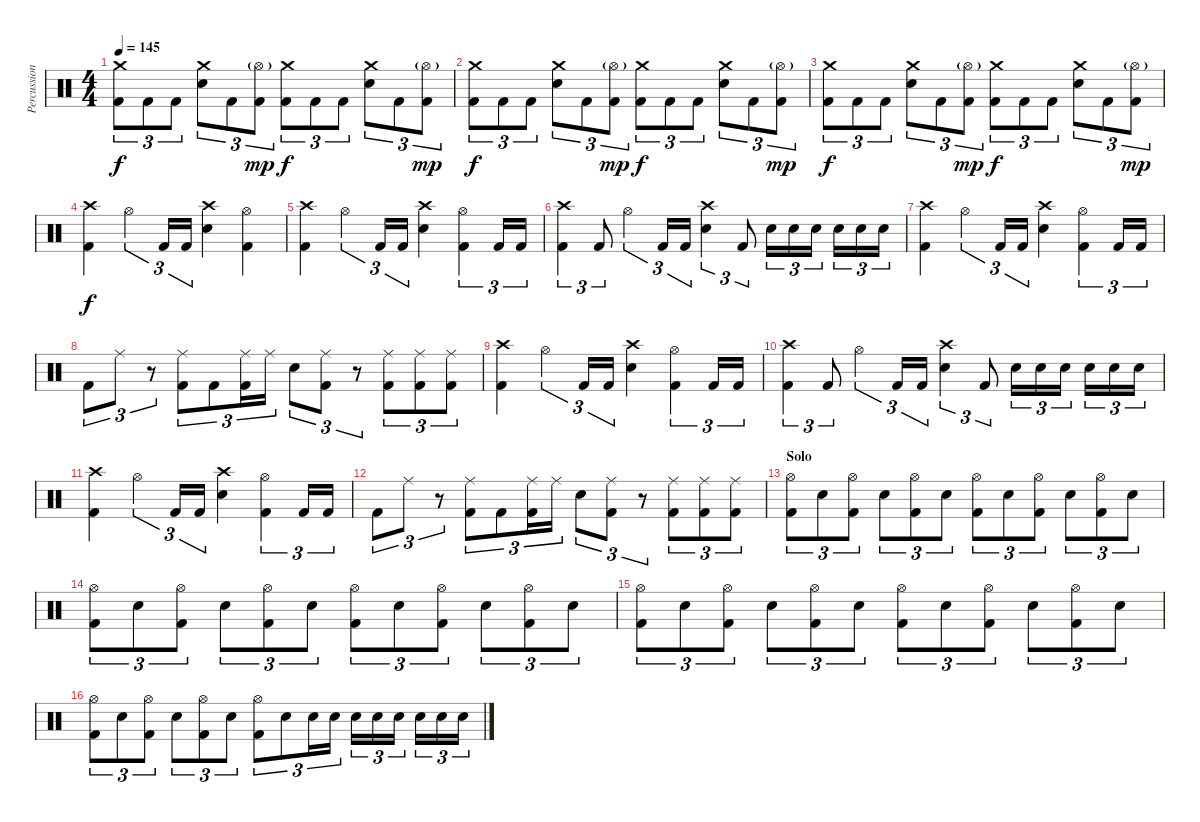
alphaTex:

\track ("Percussion" "Percussion") {instrument percussion}
\staff {score}
\articulation defaults
\ts (4 4)
\tempo 145
\clef neutral
\ks c
("Crash medium (hit)" "Kick (hit) 2").8{tu (3 2) dy f} "Kick (hit) 2".8{tu (3 2)} "Kick (hit) 2".8{tu (3 2)} ("Crash medium (hit)" "Electric Snare (hit)").8{tu (3 2)} "Kick (hit) 2".8{tu (3 2)} ("Hi-Hat (open)"{g} "Kick (hit) 2").8{tu (3 2) dy mp} ("Crash medium (hit)" "Kick (hit) 2").8{tu (3 2) dy f} "Kick (hit) 2".8{tu (3 2)} "Kick (hit) 2".8{tu (3 2)} ("Crash medium (hit)" "Electric Snare (hit)").8{tu (3 2)} "Kick (hit) 2".8{tu (3 2)} ("Hi-Hat (open)"{g} "Kick (hit) 2").8{tu (3 2) dy mp} |
("Crash medium (hit)" "Kick (hit) 2").8{tu (3 2) dy f} "Kick (hit) 2".8{tu (3 2)} "Kick (hit) 2".8{tu (3 2)} ("Crash medium (hit)" "Electric Snare (hit)").8{tu (3 2)} "Kick (hit) 2".8{tu (3 2)} ("Hi-Hat (open)"{g} "Kick (hit) 2").8{tu (3 2) dy mp} ("Crash medium (hit)" "Kick (hit) 2").8{tu (3 2) dy f} "Kick (hit) 2".8{tu (3 2)} "Kick (hit) 2".8{tu (3 2)} ("Crash medium (hit)" "Electric Snare (hit)").8{tu (3 2)} "Kick (hit) 2".8{tu (3 2)} ("Hi-Hat (open)"{g} "Kick (hit) 2").8{tu (3 2) dy mp} |
("Crash medium (hit)" "Kick (hit) 2").8{tu (3 2) dy f} "Kick (hit) 2".8{tu (3 2)} "Kick (hit) 2".8{tu (3 2)} ("Crash medium (hit)" "Electric Snare (hit)").8{tu (3 2)} "Kick (hit) 2".8{tu (3 2)} ("Hi-Hat (open)"{g} "Kick (hit) 2").8{tu (3 2) dy mp} ("Crash medium (hit)" "Kick (hit) 2").8{tu (3 2) dy f} "Kick (hit) 2".8{tu (3 2)} "Kick (hit) 2".8{tu (3 2)} ("Crash medium (hit)" "Electric Snare (hit)").8{tu (3 2)} "Kick (hit) 2".8{tu (3 2)} ("Hi-Hat (open)"{g} "Kick (hit) 2").8{tu (3 2) dy mp} |
("Crash high (hit)" "Kick (hit) 2").4{dy f} "Hi-Hat (open)".4{tu (3 2)} "Kick (hit) 2".16{tu (3 2)} "Kick (hit) 2".16{tu (3 2)} ("Crash high (hit)" "Electric Snare (hit)").4 ("Hi-Hat (open)" "Kick (hit) 2").4 |
("Crash high (hit)" "Kick (hit) 2").4 "Hi-Hat (open)".4{tu (3 2)} "Kick (hit) 2".16{tu (3 2)} "Kick (hit) 2".16{tu (3 2)} ("Crash high (hit)" "Electric Snare (hit)").4 ("Hi-Hat (open)" "Kick (hit) 2").4{tu (3 2)} "Kick (hit) 2".16{tu (3 2)} "Kick (hit) 2".16{tu (3 2)} |
("Crash high (hit)" "Kick (hit) 2").4{tu (3 2)} "Kick (hit) 2".8{tu (3 2)} "Hi-Hat (open)".4{tu (3 2)} "Kick (hit) 2".16{tu (3 2)} "Kick (hit) 2".16{tu (3 2)} ("Crash high (hit)" "Electric Snare (hit)").4{tu (3 2)} "Kick (hit) 2".8{tu (3 2)} "Electric Snare (hit)".16{tu (3 2)} "Electric Snare (hit)".16{tu (3 2)} "Electric Snare (hit)".16{tu (3 2)} "Electric Snare (hit)".16{tu (3 2)} "Electric Snare (hit)".16{tu (3 2)} "Electric Snare (hit)".16{tu (3 2)} |
("Crash high (hit)" "Kick (hit) 2").4 "Hi-Hat (open)".4{tu (3 2)} "Kick (hit) 2".16{tu (3 2)} "Kick (hit) 2".16{tu (3 2)} ("Crash high (hit)" "Electric Snare (hit)").4 ("Hi-Hat (open)" "Kick (hit) 2").4{tu (3 2)} "Kick (hit) 2".16{tu (3 2)} "Kick (hit) 2".16{tu (3 2)} |
"Kick (hit) 2".8{tu (3 2)} "Ride (middle)".8{tu (3 2)} r.8{tu (3 2)} ("Ride (middle)" "Kick (hit) 2").8{tu (3 2)} "Kick (hit) 2".8{tu (3 2)} ("Ride (middle)" "Kick (hit) 2").16{tu (3 2)} "Ride (middle)".16{tu (3 2)} "Electric Snare (hit)".8{tu (3 2)} ("Ride (middle)" "Kick (hit) 2").8{tu (3 2)} r.8{tu (3 2)} ("Ride (middle)" "Kick (hit) 2").8{tu (3 2)} ("Ride (middle)" "Kick (hit) 2").8{tu (3 2)} ("Ride (middle)" "Kick (hit) 2").8{tu (3 2)} |
("Crash high (hit)" "Kick (hit) 2").4 "Hi-Hat (open)".4{tu (3 2)} "Kick (hit) 2".16{tu (3 2)} "Kick (hit) 2".16{tu (3 2)} ("Crash high (hit)" "Electric Snare (hit)").4 ("Hi-Hat (open)" "Kick (hit) 2").4{tu (3 2)} "Kick (hit) 2".16{tu (3 2)} "Kick (hit) 2".16{tu (3 2)} |
("Crash high (hit)" "Kick (hit) 2").4{tu (3 2)} "Kick (hit) 2".8{tu (3 2)} "Hi-Hat (open)".4{tu (3 2)} "Kick (hit) 2".16{tu (3 2)} "Kick (hit) 2".16{tu (3 2)} ("Crash high (hit)" "Electric Snare (hit)").4{tu (3 2)} "Kick (hit) 2".8{tu (3 2)} "Electric Snare (hit)".16{tu (3 2)} "Electric Snare (hit)".16{tu (3 2)} "Electric Snare (hit)".16{tu (3 2)} "Electric Snare (hit)".16{tu (3 2)} "Electric Snare (hit)".16{tu (3 2)} "Electric Snare (hit)".16{tu (3 2)} |
("Crash high (hit)" "Kick (hit) 2").4 "Hi-Hat (open)".4{tu (3 2)} "Kick (hit) 2".16{tu (3 2)} "Kick (hit) 2".16{tu (3 2)} ("Crash high (hit)" "Electric Snare (hit)").4 ("Hi-Hat (open)" "Kick (hit) 2").4{tu (3 2)} "Kick (hit) 2".16{tu (3 2)} "Kick (hit) 2".16{tu (3 2)} |
"Kick (hit) 2".8{tu (3 2)} "Ride (middle)".8{tu (3 2)} r.8{tu (3 2)} ("Ride (middle)" "Kick (hit) 2").8{tu (3 2)} "Kick (hit) 2".8{tu (3 2)} ("Ride (middle)" "Kick (hit) 2").16{tu (3 2)} "Ride (middle)".16{tu (3 2)} "Electric Snare (hit)".8{tu (3 2)} ("Ride (middle)" "Kick (hit) 2").8{tu (3 2)} r.8{tu (3 2)} ("Ride (middle)" "Kick (hit) 2").8{tu (3 2)} ("Ride (middle)" "Kick (hit) 2").8{tu (3 2)} ("Ride (middle)" "Kick (hit) 2").8{tu (3 2)} |
\section ("" "Solo")
("Hi-Hat (open)" "Kick (hit) 2").8{tu (3 2)} "Electric Snare (hit)".8{tu (3 2)} ("Hi-Hat (open)" "Kick (hit) 2").8{tu (3 2)} "Electric Snare (hit)".8{tu (3 2)} ("Hi-Hat (open)" "Kick (hit) 2").8{tu (3 2)} "Electric Snare (hit)".8{tu (3 2)} ("Hi-Hat (open)" "Kick (hit) 2").8{tu (3 2)} "Electric Snare (hit)".8{tu (3 2)} ("Hi-Hat (open)" "Kick (hit) 2").8{tu (3 2)} "Electric Snare (hit)".8{tu (3 2)} ("Hi-Hat (open)" "Kick (hit) 2").8{tu (3 2)} "Electric Snare (hit)".8{tu (3 2)} |
("Hi-Hat (open)" "Kick (hit) 2").8{tu (3 2)} "Electric Snare (hit)".8{tu (3 2)} ("Hi-Hat (open)" "Kick (hit) 2").8{tu (3 2)} "Electric Snare (hit)".8{tu (3 2)} ("Hi-Hat (open)" "Kick (hit) 2").8{tu (3 2)} "Electric Snare (hit)".8{tu (3 2)} ("Hi-Hat (open)" "Kick (hit) 2").8{tu (3 2)} "Electric Snare (hit)".8{tu (3 2)} ("Hi-Hat (open)" "Kick (hit) 2").8{tu (3 2)} "Electric Snare (hit)".8{tu (3 2)} ("Hi-Hat (open)" "Kick (hit) 2").8{tu (3 2)} "Electric Snare (hit)".8{tu (3 2)} |
("Hi-Hat (open)" "Kick (hit) 2").8{tu (3 2)} "Electric Snare (hit)".8{tu (3 2)} ("Hi-Hat (open)" "Kick (hit) 2").8{tu (3 2)} "Electric Snare (hit)".8{tu (3 2)} ("Hi-Hat (open)" "Kick (hit) 2").8{tu (3 2)} "Electric Snare (hit)".8{tu (3 2)} ("Hi-Hat (open)" "Kick (hit) 2").8{tu (3 2)} "Electric Snare (hit)".8{tu (3 2)} ("Hi-Hat (open)" "Kick (hit) 2").8{tu (3 2)} "Electric Snare (hit)".8{tu (3 2)} ("Hi-Hat (open)" "Kick (hit) 2").8{tu (3 2)} "Electric Snare (hit)".8{tu (3 2)} |
("Hi-Hat (open)" "Kick (hit) 2").8{tu (3 2)} "Electric Snare (hit)".8{tu (3 2)} ("Hi-Hat (open)" "Kick (hit) 2").8{tu (3 2)} "Electric Snare (hit)".8{tu (3 2)} ("Hi-Hat (open)" "Kick (hit) 2").8{tu (3 2)} "Electric Snare (hit)".8{tu (3 2)} ("Hi-Hat (open)" "Kick (hit) 2").8{tu (3 2)} "Electric Snare (hit)".8{tu (3 2)} "Electric Snare (hit)".16{tu (3 2)} "Electric Snare (hit)".16{tu (3 2)} "Electric Snare (hit)".16{tu (3 2)} "Electric Snare (hit)".16{tu (3 2)} "Electric Snare (hit)".16{tu (3 2)} "Electric Snare (hit)".16{tu (3 2)} "Electric Snare (hit)".16{tu (3 2)} "Electric Snare (hit)".16{tu (3 2)}
